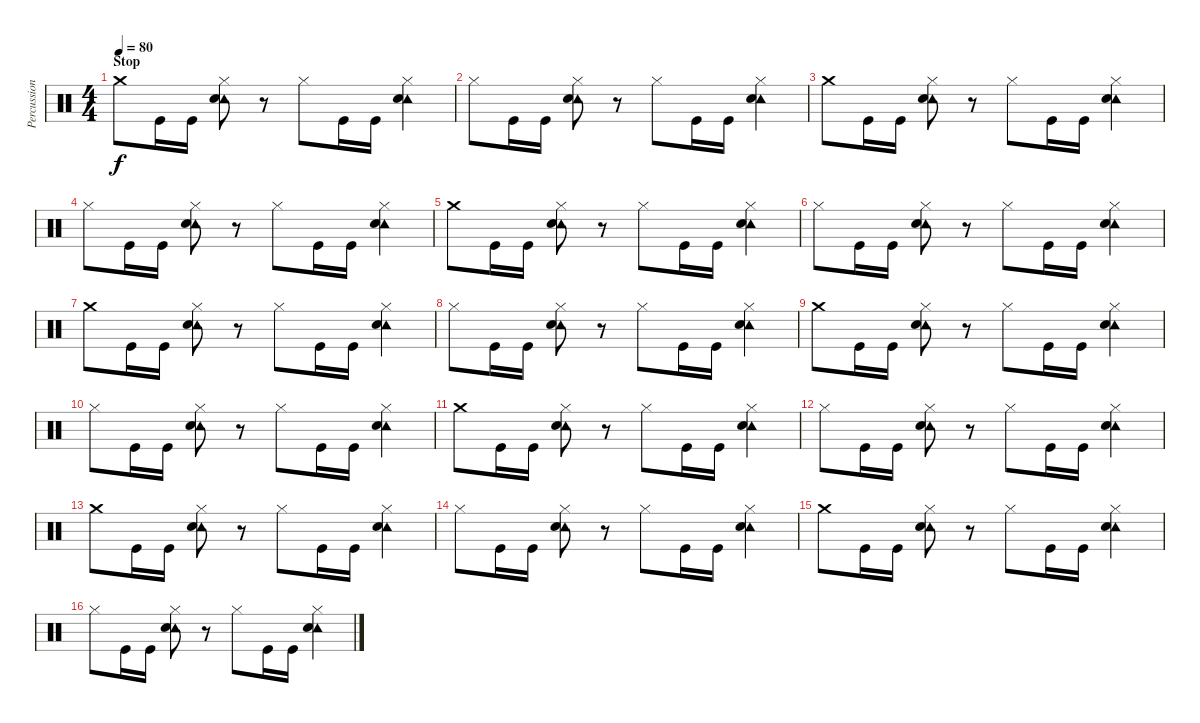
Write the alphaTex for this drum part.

\track ("Percussion" "Percussion") {instrument percussion}
\staff {score}
\articulation defaults
\ts (4 4)
\section ("" "Stop")
\tempo 80
\clef neutral
\ks c "Crash medium (hit)".8{dy f} "Kick (hit)".16 "Kick (hit)".16
("Hi-Hat (closed)" "Tambourine (hit)" "Electric Snare (hit)").8 r.8 "Hi-Hat (closed)".8 "Kick (hit)".16 "Kick (hit)".16 ("Hi-Hat (closed)" "Tambourine (hit)" "Electric Snare (hit)").4 |
"Hi-Hat (closed)".8 "Kick (hit)".16 "Kick (hit)".16 ("Hi-Hat (closed)" "Tambourine (hit)" "Electric Snare (hit)").8 r.8 "Hi-Hat (closed)".8 "Kick (hit)".16 "Kick (hit)".16 ("Hi-Hat (closed)" "Tambourine (hit)" "Electric Snare (hit)").4 |
"Crash medium (hit)".8 "Kick (hit)".16 "Kick (hit)".16 ("Hi-Hat (closed)" "Tambourine (hit)" "Electric Snare (hit)").8 r.8 "Hi-Hat (closed)".8 "Kick (hit)".16 "Kick (hit)".16 ("Hi-Hat (closed)" "Tambourine (hit)" "Electric Snare (hit)").4 |
"Hi-Hat (closed)".8 "Kick (hit)".16 "Kick (hit)".16 ("Hi-Hat (closed)" "Tambourine (hit)" "Electric Snare (hit)").8 r.8 "Hi-Hat (closed)".8 "Kick (hit)".16 "Kick (hit)".16 ("Hi-Hat (closed)" "Tambourine (hit)" "Electric Snare (hit)").4 |
"Crash medium (hit)".8 "Kick (hit)".16 "Kick (hit)".16 ("Hi-Hat (closed)" "Tambourine (hit)" "Electric Snare (hit)").8 r.8 "Hi-Hat (closed)".8 "Kick (hit)".16 "Kick (hit)".16 ("Hi-Hat (closed)" "Tambourine (hit)" "Electric Snare (hit)").4 |
"Hi-Hat (closed)".8 "Kick (hit)".16 "Kick (hit)".16 ("Hi-Hat (closed)" "Tambourine (hit)" "Electric Snare (hit)").8 r.8 "Hi-Hat (closed)".8 "Kick (hit)".16 "Kick (hit)".16 ("Hi-Hat (closed)" "Tambourine (hit)" "Electric Snare (hit)").4 |
"Crash medium (hit)".8 "Kick (hit)".16 "Kick (hit)".16 ("Hi-Hat (closed)" "Tambourine (hit)" "Electric Snare (hit)").8 r.8 "Hi-Hat (closed)".8 "Kick (hit)".16 "Kick (hit)".16 ("Hi-Hat (closed)" "Tambourine (hit)" "Electric Snare (hit)").4 |
"Hi-Hat (closed)".8 "Kick (hit)".16 "Kick (hit)".16 ("Hi-Hat (closed)" "Tambourine (hit)" "Electric Snare (hit)").8 r.8 "Hi-Hat (closed)".8 "Kick (hit)".16 "Kick (hit)".16 ("Hi-Hat (closed)" "Tambourine (hit)" "Electric Snare (hit)").4 |
"Crash medium (hit)".8 "Kick (hit)".16 "Kick (hit)".16 ("Hi-Hat (closed)" "Tambourine (hit)" "Electric Snare (hit)").8 r.8 "Hi-Hat (closed)".8 "Kick (hit)".16 "Kick (hit)".16 ("Hi-Hat (closed)" "Tambourine (hit)" "Electric Snare (hit)").4 |
"Hi-Hat (closed)".8 "Kick (hit)".16 "Kick (hit)".16 ("Hi-Hat (closed)" "Tambourine (hit)" "Electric Snare (hit)").8 r.8 "Hi-Hat (closed)".8 "Kick (hit)".16 "Kick (hit)".16 ("Hi-Hat (closed)" "Tambourine (hit)" "Electric Snare (hit)").4 |
"Crash medium (hit)".8 "Kick (hit)".16 "Kick (hit)".16 ("Hi-Hat (closed)" "Tambourine (hit)" "Electric Snare (hit)").8 r.8 "Hi-Hat (closed)".8 "Kick (hit)".16 "Kick (hit)".16 ("Hi-Hat (closed)" "Tambourine (hit)" "Electric Snare (hit)").4 |
"Hi-Hat (closed)".8 "Kick (hit)".16 "Kick (hit)".16 ("Hi-Hat (closed)" "Tambourine (hit)" "Electric Snare (hit)").8 r.8 "Hi-Hat (closed)".8 "Kick (hit)".16 "Kick (hit)".16 ("Hi-Hat (closed)" "Tambourine (hit)" "Electric Snare (hit)").4 |
"Crash medium (hit)".8 "Kick (hit)".16 "Kick (hit)".16 ("Hi-Hat (closed)" "Tambourine (hit)" "Electric Snare (hit)").8 r.8 "Hi-Hat (closed)".8 "Kick (hit)".16 "Kick (hit)".16 ("Hi-Hat (closed)" "Tambourine (hit)" "Electric Snare (hit)").4 |
"Hi-Hat (closed)".8 "Kick (hit)".16 "Kick (hit)".16 ("Hi-Hat (closed)" "Tambourine (hit)" "Electric Snare (hit)").8 r.8 "Hi-Hat (closed)".8 "Kick (hit)".16 "Kick (hit)".16 ("Hi-Hat (closed)" "Tambourine (hit)" "Electric Snare (hit)").4 |
"Crash medium (hit)".8 "Kick (hit)".16 "Kick (hit)".16 ("Hi-Hat (closed)" "Tambourine (hit)" "Electric Snare (hit)").8 r.8 "Hi-Hat (closed)".8 "Kick (hit)".16 "Kick (hit)".16 ("Hi-Hat (closed)" "Tambourine (hit)" "Electric Snare (hit)").4 |
"Hi-Hat (closed)".8 "Kick (hit)".16 "Kick (hit)".16 ("Hi-Hat (closed)" "Tambourine (hit)" "Electric Snare (hit)").8 r.8 "Hi-Hat (closed)".8 "Kick (hit)".16 "Kick (hit)".16 ("Hi-Hat (closed)" "Tambourine (hit)" "Electric Snare (hit)").4
